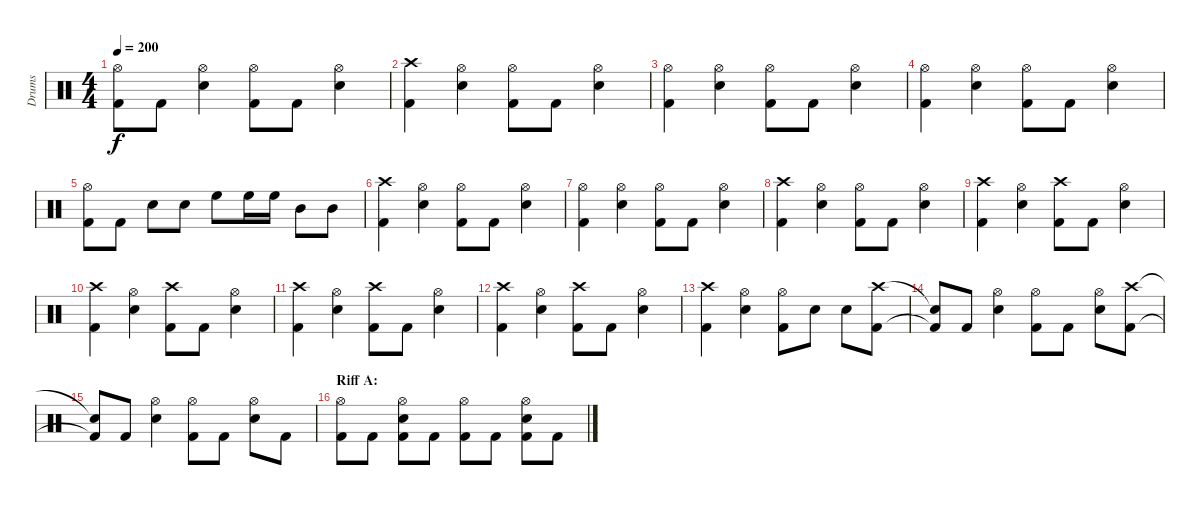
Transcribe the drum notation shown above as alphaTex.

\track ("Drums" "Drums") {instrument percussion}
\staff {score}
\articulation defaults
\ts (4 4)
\tempo 200
\clef neutral
\ks c
("Hi-Hat (open)" "Kick (hit) 2").8{dy f} "Kick (hit) 2".8 ("Hi-Hat (open)" "Electric Snare (hit)").4 ("Hi-Hat (open)" "Kick (hit) 2").8 "Kick (hit) 2".8 ("Hi-Hat (open)" "Electric Snare (hit)").4 |
("Crash high (hit)" "Kick (hit) 2").4 ("Hi-Hat (open)" "Electric Snare (hit)").4 ("Hi-Hat (open)" "Kick (hit) 2").8 "Kick (hit) 2".8 ("Hi-Hat (open)" "Electric Snare (hit)").4 |
("Hi-Hat (open)" "Kick (hit) 2").4 ("Hi-Hat (open)" "Electric Snare (hit)").4 ("Hi-Hat (open)" "Kick (hit) 2").8 "Kick (hit) 2".8 ("Hi-Hat (open)" "Electric Snare (hit)").4 |
("Hi-Hat (open)" "Kick (hit) 2").4 ("Hi-Hat (open)" "Electric Snare (hit)").4 ("Hi-Hat (open)" "Kick (hit) 2").8 "Kick (hit) 2".8 ("Hi-Hat (open)" "Electric Snare (hit)").4 |
("Hi-Hat (open)" "Kick (hit) 2").8 "Kick (hit) 2".8 "Electric Snare (hit)".8 "Electric Snare (hit)".8 "High Floor Tom (hit)".8 "High Floor Tom (hit)".16 "High Floor Tom (hit)".16 "Mid Tom (hit)".8 "Mid Tom (hit)".8 |
("Crash high (hit)" "Kick (hit) 2").4 ("Hi-Hat (open)" "Electric Snare (hit)").4 ("Hi-Hat (open)" "Kick (hit) 2").8 "Kick (hit) 2".8 ("Hi-Hat (open)" "Electric Snare (hit)").4 |
("Hi-Hat (open)" "Kick (hit) 2").4 ("Hi-Hat (open)" "Electric Snare (hit)").4 ("Hi-Hat (open)" "Kick (hit) 2").8 "Kick (hit) 2".8 ("Hi-Hat (open)" "Electric Snare (hit)").4 |
("Crash high (hit)" "Kick (hit) 2").4 ("Hi-Hat (open)" "Electric Snare (hit)").4 ("Hi-Hat (open)" "Kick (hit) 2").8 "Kick (hit) 2".8 ("Hi-Hat (open)" "Electric Snare (hit)").4 |
("Crash high (hit)" "Kick (hit) 2").4 ("Hi-Hat (open)" "Electric Snare (hit)").4 ("Crash high (hit)" "Kick (hit) 2").8 "Kick (hit) 2".8 ("Hi-Hat (open)" "Electric Snare (hit)").4 |
("Crash high (hit)" "Kick (hit) 2").4 ("Hi-Hat (open)" "Electric Snare (hit)").4 ("Crash high (hit)" "Kick (hit) 2").8 "Kick (hit) 2".8 ("Hi-Hat (open)" "Electric Snare (hit)").4 |
("Crash high (hit)" "Kick (hit) 2").4 ("Hi-Hat (open)" "Electric Snare (hit)").4 ("Crash high (hit)" "Kick (hit) 2").8 "Kick (hit) 2".8 ("Hi-Hat (open)" "Electric Snare (hit)").4 |
("Crash high (hit)" "Kick (hit) 2").4 ("Hi-Hat (open)" "Electric Snare (hit)").4 ("Crash high (hit)" "Kick (hit) 2").8 "Kick (hit) 2".8 ("Hi-Hat (open)" "Electric Snare (hit)").4 |
("Crash high (hit)" "Kick (hit) 2").4 ("Hi-Hat (open)" "Electric Snare (hit)").4 ("Hi-Hat (open)" "Kick (hit) 2").8 "Electric Snare (hit)".8 "Electric Snare (hit)".8 ("Crash high (hit)" "Kick (hit) 2").8 |
("Snare (hit)"{t} "Kick (hit) 2"{t}).8 "Kick (hit) 2".8 ("Hi-Hat (open)" "Electric Snare (hit)").4 ("Hi-Hat (open)" "Kick (hit) 2").8 "Kick (hit) 2".8 ("Hi-Hat (open)" "Electric Snare (hit)").8 ("Crash high (hit)" "Kick (hit) 2").8 |
("Snare (hit)"{t} "Kick (hit) 2"{t}).8 "Kick (hit) 2".8 ("Hi-Hat (open)" "Electric Snare (hit)").4 ("Hi-Hat (open)" "Kick (hit) 2").8 "Kick (hit) 2".8 ("Hi-Hat (open)" "Electric Snare (hit)").8 "Kick (hit) 2".8 |
\section ("" "Riff A:")
("Hi-Hat (open)" "Kick (hit) 2").8 "Kick (hit) 2".8 ("Hi-Hat (open)" "Electric Snare (hit)" "Kick (hit) 2").8 "Kick (hit) 2".8 ("Hi-Hat (open)" "Kick (hit) 2").8 "Kick (hit) 2".8 ("Hi-Hat (open)" "Electric Snare (hit)" "Kick (hit) 2").8 "Kick (hit) 2".8
